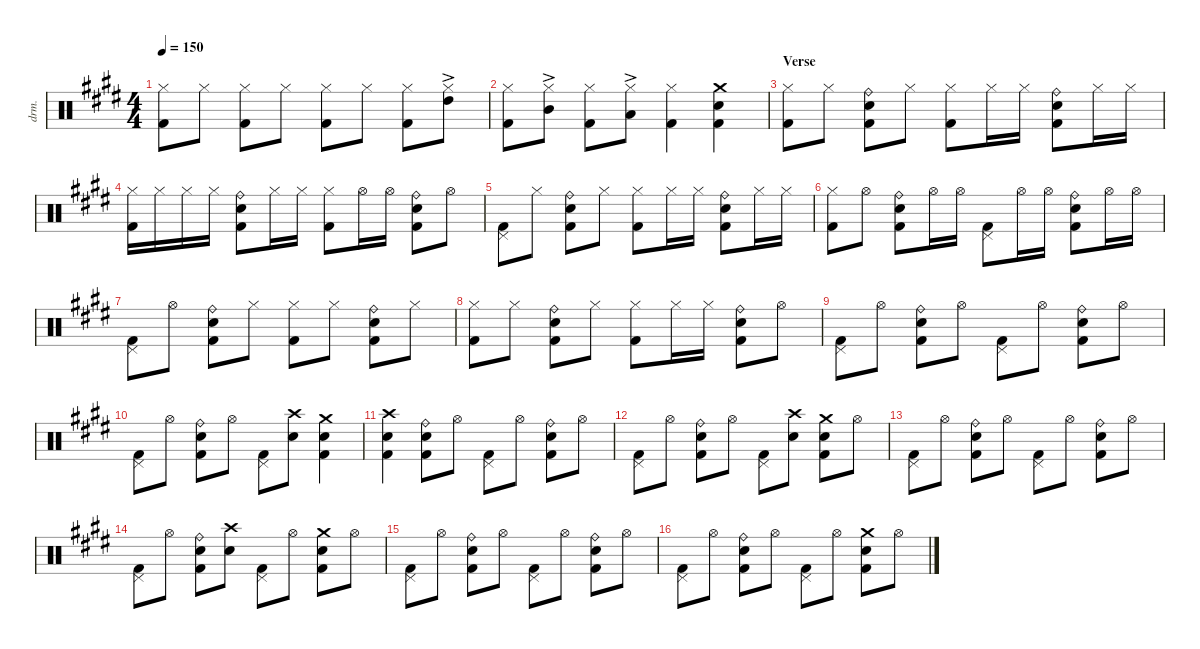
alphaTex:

\defaultSystemsLayout 4
\hideDynamics
\bracketExtendMode nobrackets
\otherSystemsTrackNameOrientation horizontal
\track ("Drums - S. Copeland" "drm.") {instrument percussion}
\staff {score}
\articulation defaults
\ts (4 4)
\tempo 150
\clef neutral
\ks c#minor
("Hi-Hat (closed)"{acc forcenatural} "Kick (hit) 2"{acc forcenatural}).8{dy mf beam Down} "Hi-Hat (closed)"{acc forcenatural}.8{beam Down} ("Hi-Hat (closed)"{acc forcenatural} "Kick (hit) 2"{acc forcenatural}).8{beam Down} "Hi-Hat (closed)"{acc forcenatural}.8{beam Down} ("Hi-Hat (closed)"{acc forcenatural} "Kick (hit) 2"{acc forcenatural}).8{beam Down} "Hi-Hat (closed)"{acc forcenatural}.8{beam Down} ("Hi-Hat (closed)"{acc forcenatural} "Kick (hit) 2"{acc forcenatural}).8{beam Down} ("Hi-Hat (closed)"{acc forcenatural} "High Tom (hit)"{ac acc forcenatural}).8{beam Down} |
("Hi-Hat (closed)"{acc forcenatural} "Kick (hit) 2"{acc forcenatural}).8{beam Down} ("Hi-Hat (closed)"{acc forcenatural} "Mid Tom (hit)"{ac acc forcenatural}).8{beam Down} ("Hi-Hat (closed)"{acc forcenatural} "Kick (hit) 2"{acc forcenatural}).8{beam Down} ("Hi-Hat (closed)"{acc forcenatural} "Low Tom (hit)"{ac acc forcenatural}).8{beam Down} ("Hi-Hat (closed)"{acc forcenatural} "Kick (hit) 2"{acc forcenatural}).4{beam Down} ("Kick (hit) 2"{acc forcenatural} "Crash medium (hit)"{acc forcenatural} "Snare (hit) 2"{acc forcenatural}).4{beam Down} |
\section ("" "Verse")
("Hi-Hat (closed)"{acc forcenatural} "Kick (hit) 2"{acc forcenatural}).8{beam Down} "Hi-Hat (closed)"{acc forcenatural}.8{beam Down} ("Kick (hit) 2"{acc forcenatural} "Ride (bell)"{acc forcenatural} "Snare (hit) 2"{acc forcenatural}).8{beam Down} "Hi-Hat (closed)"{acc forcenatural}.8{beam Down} ("Hi-Hat (closed)"{acc forcenatural} "Kick (hit) 2"{acc forcenatural}).8{beam Down} "Hi-Hat (closed)"{acc forcenatural}.16{beam Down} "Hi-Hat (closed)"{acc forcenatural}.16{beam Down} ("Kick (hit) 2"{acc forcenatural} "Ride (bell)"{acc forcenatural} "Snare (hit) 2"{acc forcenatural}).8{beam Down} "Hi-Hat (closed)"{acc forcenatural}.16{beam Down} "Hi-Hat (closed)"{acc forcenatural}.16{beam Down} |
("Hi-Hat (closed)"{acc forcenatural} "Kick (hit) 2"{acc forcenatural}).16{beam Down} "Hi-Hat (closed)"{acc forcenatural}.16{beam Down} "Hi-Hat (closed)"{acc forcenatural}.16{beam Down} "Hi-Hat (closed)"{acc forcenatural}.16{beam Down} ("Kick (hit) 2"{acc forcenatural} "Ride (bell)"{acc forcenatural} "Snare (hit) 2"{acc forcenatural}).8{beam Down} "Hi-Hat (closed)"{acc forcenatural}.16{beam Down} "Hi-Hat (closed)"{acc forcenatural}.16{beam Down} ("Hi-Hat (closed)"{acc forcenatural} "Kick (hit) 2"{acc forcenatural}).8{beam Down} "Hi-Hat (open)"{acc forcenatural}.16{beam Down} "Hi-Hat (open)"{acc forcenatural}.16{beam Down} ("Kick (hit) 2"{acc forcenatural} "Ride (bell)"{acc forcenatural} "Snare (hit) 2"{acc forcenatural}).8{beam Down} "Hi-Hat (open)"{acc forcenatural}.8{beam Down} |
("Pedal Hi-Hat (hit)"{acc forcenatural} "Kick (hit) 2"{acc forcenatural}).8{beam Down} "Hi-Hat (closed)"{acc forcenatural}.8{beam Down} ("Kick (hit) 2"{acc forcenatural} "Ride (bell)"{acc forcenatural} "Snare (hit) 2"{acc forcenatural}).8{beam Down} "Hi-Hat (closed)"{acc forcenatural}.8{beam Down} ("Hi-Hat (closed)"{acc forcenatural} "Kick (hit) 2"{acc forcenatural}).8{beam Down} "Hi-Hat (closed)"{acc forcenatural}.16{beam Down} "Hi-Hat (closed)"{acc forcenatural}.16{beam Down} ("Kick (hit) 2"{acc forcenatural} "Ride (bell)"{acc forcenatural} "Snare (hit) 2"{acc forcenatural}).8{beam Down} "Hi-Hat (closed)"{acc forcenatural}.16{beam Down} "Hi-Hat (closed)"{acc forcenatural}.16{beam Down} |
("Hi-Hat (closed)"{acc forcenatural} "Kick (hit) 2"{acc forcenatural}).8{beam Down} "Hi-Hat (open)"{acc forcenatural}.8{beam Down} ("Kick (hit) 2"{acc forcenatural} "Ride (bell)"{acc forcenatural} "Snare (hit) 2"{acc forcenatural}).8{beam Down} "Hi-Hat (open)"{acc forcenatural}.16{beam Down} "Hi-Hat (open)"{acc forcenatural}.16{beam Down} ("Pedal Hi-Hat (hit)"{acc forcenatural} "Kick (hit) 2"{acc forcenatural}).8{beam Down} "Hi-Hat (open)"{acc forcenatural}.16{beam Down} "Hi-Hat (open)"{acc forcenatural}.16{beam Down} ("Kick (hit) 2"{acc forcenatural} "Ride (bell)"{acc forcenatural} "Snare (hit) 2"{acc forcenatural}).8{beam Down} "Hi-Hat (open)"{acc forcenatural}.16{beam Down} "Hi-Hat (open)"{acc forcenatural}.16{beam Down} |
("Pedal Hi-Hat (hit)"{acc forcenatural} "Kick (hit) 2"{acc forcenatural}).8{beam Down} "Hi-Hat (open)"{acc forcenatural}.8{beam Down} ("Kick (hit) 2"{acc forcenatural} "Ride (bell)"{acc forcenatural} "Snare (hit) 2"{acc forcenatural}).8{beam Down} "Hi-Hat (closed)"{acc forcenatural}.8{beam Down} ("Hi-Hat (closed)"{acc forcenatural} "Kick (hit) 2"{acc forcenatural}).8{beam Down} "Hi-Hat (closed)"{acc forcenatural}.8{beam Down} ("Kick (hit) 2"{acc forcenatural} "Ride (bell)"{acc forcenatural} "Snare (hit) 2"{acc forcenatural}).8{beam Down} "Hi-Hat (closed)"{acc forcenatural}.8{beam Down} |
("Hi-Hat (closed)"{acc forcenatural} "Kick (hit) 2"{acc forcenatural}).8{beam Down} "Hi-Hat (closed)"{acc forcenatural}.8{beam Down} ("Kick (hit) 2"{acc forcenatural} "Ride (bell)"{acc forcenatural} "Snare (hit) 2"{acc forcenatural}).8{beam Down} "Hi-Hat (closed)"{acc forcenatural}.8{beam Down} ("Hi-Hat (closed)"{acc forcenatural} "Kick (hit) 2"{acc forcenatural}).8{beam Down} "Hi-Hat (closed)"{acc forcenatural}.16{beam Down} "Hi-Hat (closed)"{acc forcenatural}.16{beam Down} ("Kick (hit) 2"{acc forcenatural} "Ride (bell)"{acc forcenatural} "Snare (hit) 2"{acc forcenatural}).8{beam Down} "Hi-Hat (open)"{acc forcenatural}.8{beam Down} |
("Pedal Hi-Hat (hit)"{acc forcenatural} "Kick (hit) 2"{acc forcenatural}).8{beam Down} "Hi-Hat (open)"{acc forcenatural}.8{beam Down} ("Kick (hit) 2"{acc forcenatural} "Ride (bell)"{acc forcenatural} "Snare (hit) 2"{acc forcenatural}).8{beam Down} "Hi-Hat (open)"{acc forcenatural}.8{beam Down} ("Pedal Hi-Hat (hit)"{acc forcenatural} "Kick (hit) 2"{acc forcenatural}).8{beam Down} "Hi-Hat (open)"{acc forcenatural}.8{beam Down} ("Kick (hit) 2"{acc forcenatural} "Ride (bell)"{acc forcenatural} "Snare (hit) 2"{acc forcenatural}).8{beam Down} "Hi-Hat (open)"{acc forcenatural}.8{beam Down} |
("Pedal Hi-Hat (hit)"{acc forcenatural} "Kick (hit) 2"{acc forcenatural}).8{beam Down} "Hi-Hat (open)"{acc forcenatural}.8{beam Down} ("Kick (hit) 2"{acc forcenatural} "Ride (bell)"{acc forcenatural} "Snare (hit) 2"{acc forcenatural}).8{beam Down} "Hi-Hat (open)"{acc forcenatural}.8{beam Down} ("Pedal Hi-Hat (hit)"{acc forcenatural} "Kick (hit) 2"{acc forcenatural}).8{beam Down} ("Crash high (hit)"{acc forcenatural} "Snare (hit) 2"{acc forcenatural}).8{beam Down} ("Kick (hit) 2"{acc forcenatural} "Snare (hit) 2"{acc forcenatural} "Crash medium (hit)"{acc forcenatural}).4{beam Down} |
("Kick (hit) 2"{acc forcenatural} "Snare (hit) 2"{acc forcenatural} "Crash high (hit)"{acc forcenatural}).4{beam Down} ("Kick (hit) 2"{acc forcenatural} "Ride (bell)"{acc forcenatural} "Snare (hit) 2"{acc forcenatural}).8{beam Down} "Hi-Hat (open)"{acc forcenatural}.8{beam Down} ("Pedal Hi-Hat (hit)"{acc forcenatural} "Kick (hit) 2"{acc forcenatural}).8{beam Down} "Hi-Hat (open)"{acc forcenatural}.8{beam Down} ("Kick (hit) 2"{acc forcenatural} "Ride (bell)"{acc forcenatural} "Snare (hit) 2"{acc forcenatural}).8{beam Down} "Hi-Hat (open)"{acc forcenatural}.8{beam Down} |
("Pedal Hi-Hat (hit)"{acc forcenatural} "Kick (hit) 2"{acc forcenatural}).8{beam Down} "Hi-Hat (open)"{acc forcenatural}.8{beam Down} ("Kick (hit) 2"{acc forcenatural} "Ride (bell)"{acc forcenatural} "Snare (hit) 2"{acc forcenatural}).8{beam Down} "Hi-Hat (open)"{acc forcenatural}.8{beam Down} ("Pedal Hi-Hat (hit)"{acc forcenatural} "Kick (hit) 2"{acc forcenatural}).8{beam Down} ("Crash high (hit)"{acc forcenatural} "Snare (hit) 2"{acc forcenatural}).8{beam Down} ("Kick (hit) 2"{acc forcenatural} "Snare (hit) 2"{acc forcenatural} "Crash medium (hit)"{acc forcenatural}).8{beam Down} "Hi-Hat (open)"{acc forcenatural}.8{beam Down} |
("Pedal Hi-Hat (hit)"{acc forcenatural} "Kick (hit) 2"{acc forcenatural}).8{beam Down} "Hi-Hat (open)"{acc forcenatural}.8{beam Down} ("Kick (hit) 2"{acc forcenatural} "Ride (bell)"{acc forcenatural} "Snare (hit) 2"{acc forcenatural}).8{beam Down} "Hi-Hat (open)"{acc forcenatural}.8{beam Down} ("Pedal Hi-Hat (hit)"{acc forcenatural} "Kick (hit) 2"{acc forcenatural}).8{beam Down} "Hi-Hat (open)"{acc forcenatural}.8{beam Down} ("Kick (hit) 2"{acc forcenatural} "Ride (bell)"{acc forcenatural} "Snare (hit) 2"{acc forcenatural}).8{beam Down} "Hi-Hat (open)"{acc forcenatural}.8{beam Down} |
("Pedal Hi-Hat (hit)"{acc forcenatural} "Kick (hit) 2"{acc forcenatural}).8{beam Down} "Hi-Hat (open)"{acc forcenatural}.8{beam Down} ("Kick (hit) 2"{acc forcenatural} "Ride (bell)"{acc forcenatural} "Snare (hit) 2"{acc forcenatural}).8{beam Down} ("Snare (hit) 2"{acc forcenatural} "Crash high (hit)"{acc forcenatural}).8{beam Down} ("Pedal Hi-Hat (hit)"{acc forcenatural} "Kick (hit) 2"{acc forcenatural}).8{beam Down} "Hi-Hat (open)"{acc forcenatural}.8{beam Down} ("Kick (hit) 2"{acc forcenatural} "Snare (hit) 2"{acc forcenatural} "Crash medium (hit)"{acc forcenatural}).8{beam Down} "Hi-Hat (open)"{acc forcenatural}.8{beam Down} |
("Pedal Hi-Hat (hit)"{acc forcenatural} "Kick (hit) 2"{acc forcenatural}).8{beam Down} "Hi-Hat (open)"{acc forcenatural}.8{beam Down} ("Kick (hit) 2"{acc forcenatural} "Ride (bell)"{acc forcenatural} "Snare (hit) 2"{acc forcenatural}).8{beam Down} "Hi-Hat (open)"{acc forcenatural}.8{beam Down} ("Pedal Hi-Hat (hit)"{acc forcenatural} "Kick (hit) 2"{acc forcenatural}).8{beam Down} "Hi-Hat (open)"{acc forcenatural}.8{beam Down} ("Kick (hit) 2"{acc forcenatural} "Ride (bell)"{acc forcenatural} "Snare (hit) 2"{acc forcenatural}).8{beam Down} "Hi-Hat (open)"{acc forcenatural}.8{beam Down} |
("Pedal Hi-Hat (hit)"{acc forcenatural} "Kick (hit) 2"{acc forcenatural}).8{beam Down} "Hi-Hat (open)"{acc forcenatural}.8{beam Down} ("Kick (hit) 2"{acc forcenatural} "Ride (bell)"{acc forcenatural} "Snare (hit) 2"{acc forcenatural}).8{beam Down} "Hi-Hat (open)"{acc forcenatural}.8{beam Down} ("Pedal Hi-Hat (hit)"{acc forcenatural} "Kick (hit) 2"{acc forcenatural}).8{beam Down} "Hi-Hat (open)"{acc forcenatural}.8{beam Down} ("Kick (hit) 2"{acc forcenatural} "Snare (hit) 2"{acc forcenatural} "Crash medium (hit)"{acc forcenatural}).8{beam Down} "Hi-Hat (open)"{acc forcenatural}.8{beam Down}
